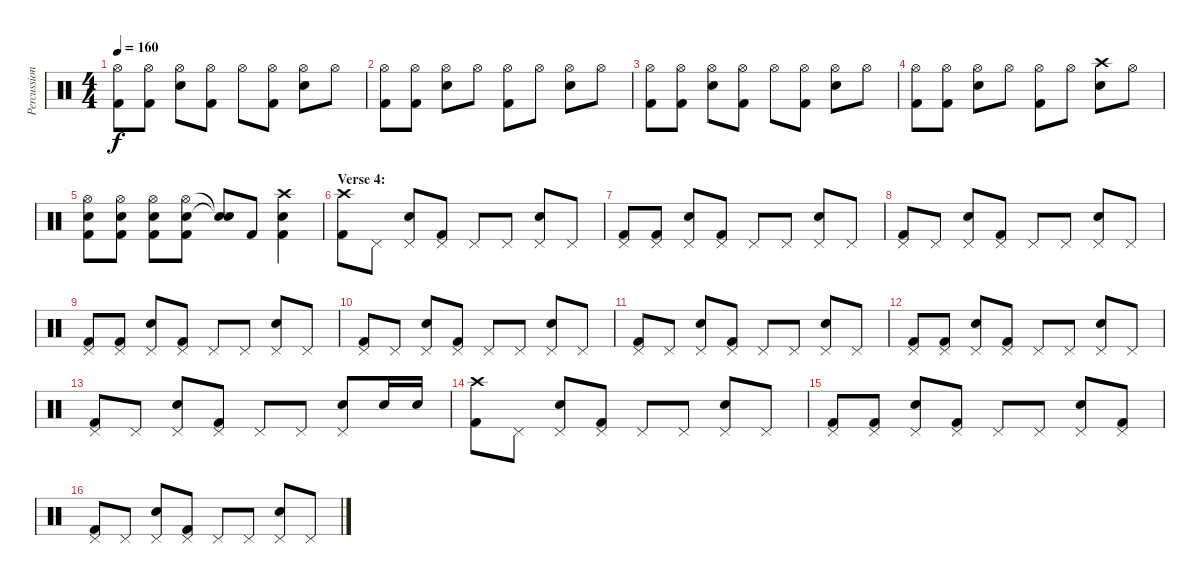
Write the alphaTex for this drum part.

\track ("Percussion" "Percussion") {instrument percussion}
\staff {score}
\articulation defaults
\ts (4 4)
\tempo 160
\clef neutral
\ks c
("Hi-Hat (open)" "Kick (hit) 2").8{dy f} ("Hi-Hat (open)" "Kick (hit) 2").8 ("Hi-Hat (open)" "Snare (hit) 2").8 ("Hi-Hat (open)" "Kick (hit) 2").8 "Hi-Hat (open)".8 ("Hi-Hat (open)" "Kick (hit) 2").8 ("Hi-Hat (open)" "Snare (hit) 2").8 "Hi-Hat (open)".8 |
("Hi-Hat (open)" "Kick (hit) 2").8 ("Hi-Hat (open)" "Kick (hit) 2").8 ("Hi-Hat (open)" "Snare (hit) 2").8 "Hi-Hat (open)".8 ("Hi-Hat (open)" "Kick (hit) 2").8 "Hi-Hat (open)".8 ("Hi-Hat (open)" "Snare (hit) 2").8 "Hi-Hat (open)".8 |
("Hi-Hat (open)" "Kick (hit) 2").8 ("Hi-Hat (open)" "Kick (hit) 2").8 ("Hi-Hat (open)" "Snare (hit) 2").8 ("Hi-Hat (open)" "Kick (hit) 2").8 "Hi-Hat (open)".8 ("Hi-Hat (open)" "Kick (hit) 2").8 ("Hi-Hat (open)" "Snare (hit) 2").8 "Hi-Hat (open)".8 |
("Hi-Hat (open)" "Kick (hit) 2").8 ("Hi-Hat (open)" "Kick (hit) 2").8 ("Hi-Hat (open)" "Snare (hit) 2").8 "Hi-Hat (open)".8 ("Hi-Hat (open)" "Kick (hit) 2").8 "Hi-Hat (open)".8 ("Crash high (hit)" "Snare (hit) 2").8 "Hi-Hat (open)".8 |
("Hi-Hat (open)" "Snare (hit) 2" "Kick (hit) 2").8 ("Hi-Hat (open)" "Snare (hit) 2" "Kick (hit) 2").8 ("Hi-Hat (open)" "Snare (hit) 2" "Kick (hit) 2").8 ("Hi-Hat (open)" "Snare (hit) 2" "Kick (hit) 2").8 ("Snare (hit)"{t} "Snare (hit)"{t}).8 "Kick (hit) 2".8 ("Crash high (hit)" "Snare (hit) 2" "Kick (hit) 2").4 |
\section ("" "Verse 4:")
("Crash high (hit)" "Kick (hit) 2").8 "Pedal Hi-Hat (hit)".8 ("Pedal Hi-Hat (hit)" "Snare (hit) 2").8 ("Pedal Hi-Hat (hit)" "Kick (hit) 2").8 "Pedal Hi-Hat (hit)".8 "Pedal Hi-Hat (hit)".8 ("Pedal Hi-Hat (hit)" "Snare (hit) 2").8 "Pedal Hi-Hat (hit)".8 |
("Pedal Hi-Hat (hit)" "Kick (hit) 2").8 ("Pedal Hi-Hat (hit)" "Kick (hit) 2").8 ("Pedal Hi-Hat (hit)" "Snare (hit) 2").8 ("Pedal Hi-Hat (hit)" "Kick (hit) 2").8 "Pedal Hi-Hat (hit)".8 "Pedal Hi-Hat (hit)".8 ("Pedal Hi-Hat (hit)" "Snare (hit) 2").8 "Pedal Hi-Hat (hit)".8 |
("Pedal Hi-Hat (hit)" "Kick (hit) 2").8 "Pedal Hi-Hat (hit)".8 ("Pedal Hi-Hat (hit)" "Snare (hit) 2").8 ("Pedal Hi-Hat (hit)" "Kick (hit) 2").8 "Pedal Hi-Hat (hit)".8 "Pedal Hi-Hat (hit)".8 ("Pedal Hi-Hat (hit)" "Snare (hit) 2").8 "Pedal Hi-Hat (hit)".8 |
("Pedal Hi-Hat (hit)" "Kick (hit) 2").8 ("Pedal Hi-Hat (hit)" "Kick (hit) 2").8 ("Pedal Hi-Hat (hit)" "Snare (hit) 2").8 ("Pedal Hi-Hat (hit)" "Kick (hit) 2").8 "Pedal Hi-Hat (hit)".8 "Pedal Hi-Hat (hit)".8 ("Pedal Hi-Hat (hit)" "Snare (hit) 2").8 "Pedal Hi-Hat (hit)".8 |
("Pedal Hi-Hat (hit)" "Kick (hit) 2").8 "Pedal Hi-Hat (hit)".8 ("Pedal Hi-Hat (hit)" "Snare (hit) 2").8 ("Pedal Hi-Hat (hit)" "Kick (hit) 2").8 "Pedal Hi-Hat (hit)".8 "Pedal Hi-Hat (hit)".8 ("Pedal Hi-Hat (hit)" "Snare (hit) 2").8 "Pedal Hi-Hat (hit)".8 |
("Pedal Hi-Hat (hit)" "Kick (hit) 2").8 "Pedal Hi-Hat (hit)".8 ("Pedal Hi-Hat (hit)" "Snare (hit) 2").8 ("Pedal Hi-Hat (hit)" "Kick (hit) 2").8 "Pedal Hi-Hat (hit)".8 "Pedal Hi-Hat (hit)".8 ("Pedal Hi-Hat (hit)" "Snare (hit) 2").8 "Pedal Hi-Hat (hit)".8 |
("Pedal Hi-Hat (hit)" "Kick (hit) 2").8 ("Pedal Hi-Hat (hit)" "Kick (hit) 2").8 ("Pedal Hi-Hat (hit)" "Snare (hit) 2").8 ("Pedal Hi-Hat (hit)" "Kick (hit) 2").8 "Pedal Hi-Hat (hit)".8 "Pedal Hi-Hat (hit)".8 ("Pedal Hi-Hat (hit)" "Snare (hit) 2").8 "Pedal Hi-Hat (hit)".8 |
("Pedal Hi-Hat (hit)" "Kick (hit) 2").8 "Pedal Hi-Hat (hit)".8 ("Pedal Hi-Hat (hit)" "Snare (hit) 2").8 ("Pedal Hi-Hat (hit)" "Kick (hit) 2").8 "Pedal Hi-Hat (hit)".8 "Pedal Hi-Hat (hit)".8 ("Pedal Hi-Hat (hit)" "Snare (hit) 2").8 "Snare (hit) 2".16 "Snare (hit) 2".16 |
("Crash high (hit)" "Kick (hit) 2").8 "Pedal Hi-Hat (hit)".8 ("Pedal Hi-Hat (hit)" "Snare (hit) 2").8 ("Pedal Hi-Hat (hit)" "Kick (hit) 2").8 "Pedal Hi-Hat (hit)".8 "Pedal Hi-Hat (hit)".8 ("Pedal Hi-Hat (hit)" "Snare (hit) 2").8 "Pedal Hi-Hat (hit)".8 |
("Pedal Hi-Hat (hit)" "Kick (hit) 2").8 ("Pedal Hi-Hat (hit)" "Kick (hit) 2").8 ("Pedal Hi-Hat (hit)" "Snare (hit) 2").8 ("Pedal Hi-Hat (hit)" "Kick (hit) 2").8 "Pedal Hi-Hat (hit)".8 "Pedal Hi-Hat (hit)".8 ("Pedal Hi-Hat (hit)" "Snare (hit) 2").8 ("Pedal Hi-Hat (hit)" "Kick (hit) 2").8 |
("Pedal Hi-Hat (hit)" "Kick (hit) 2").8 "Pedal Hi-Hat (hit)".8 ("Pedal Hi-Hat (hit)" "Snare (hit) 2").8 ("Pedal Hi-Hat (hit)" "Kick (hit) 2").8 "Pedal Hi-Hat (hit)".8 "Pedal Hi-Hat (hit)".8 ("Pedal Hi-Hat (hit)" "Snare (hit) 2").8 "Pedal Hi-Hat (hit)".8
